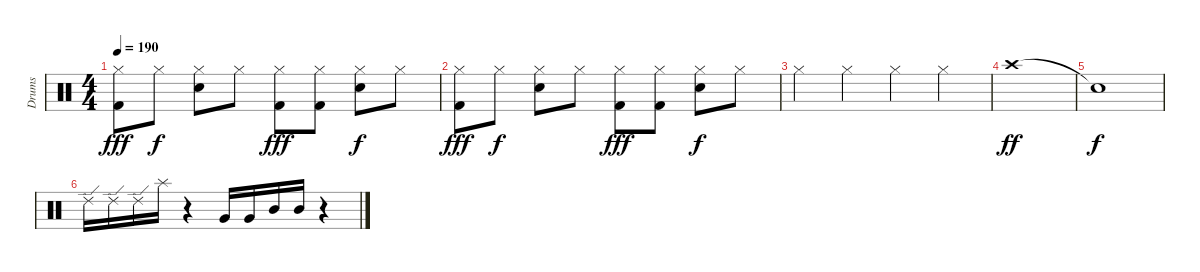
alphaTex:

\track ("Drums" "Drums") {instrument percussion}
\staff {score}
\articulation defaults
\ts (4 4)
\tempo 190
\clef neutral
\ks c
("Hi-Hat (closed)" "Kick (hit) 2").8{dy fff} "Hi-Hat (closed)".8{dy f} ("Hi-Hat (closed)" "Electric Snare (hit)").8 "Hi-Hat (closed)".8 ("Hi-Hat (closed)" "Kick (hit) 2").8{dy fff} ("Hi-Hat (closed)" "Kick (hit) 2").8 ("Hi-Hat (closed)" "Electric Snare (hit)").8{dy f} "Hi-Hat (closed)".8 |
("Hi-Hat (closed)" "Kick (hit) 2").8{dy fff} "Hi-Hat (closed)".8{dy f} ("Hi-Hat (closed)" "Electric Snare (hit)").8 "Hi-Hat (closed)".8 ("Hi-Hat (closed)" "Kick (hit) 2").8{dy fff} ("Hi-Hat (closed)" "Kick (hit) 2").8 ("Hi-Hat (closed)" "Electric Snare (hit)").8{dy f} "Hi-Hat (closed)".8 |
"Hi-Hat (closed)".4 "Hi-Hat (closed)".4 "Hi-Hat (closed)".4 "Hi-Hat (closed)".4 |
"Crash high (hit)".1{dy ff} |
"Snare (hit)"{t}.1{dy f} |
"Ride (edge) 2".16 "Ride (edge) 2".16 "Ride (edge) 2".16 "Splash (hit)".16 r.4 "Very Low Tom (hit)".16 "Very Low Tom (hit)".16 "Mid Tom (hit)".16 "Mid Tom (hit)".16 r.4
